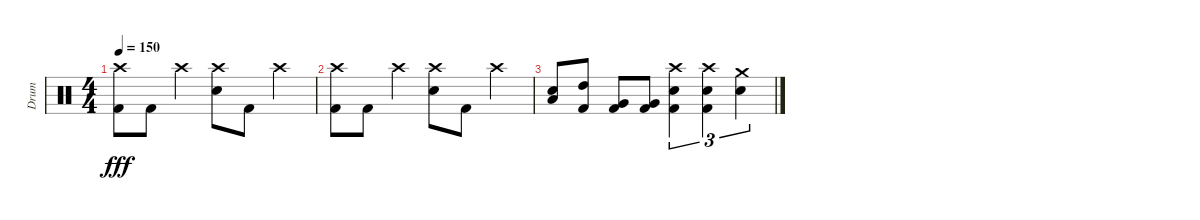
\track ("Drum" "Drum") {instrument percussion}
\staff {score}
\articulation defaults
\ts (4 4)
\tempo 150
\clef neutral
\ks c
("Crash high (hit)" "Kick (hit) 2").8{dy fff} "Kick (hit) 2".8 "Crash high (hit)".4 ("Crash high (hit)" "Electric Snare (hit)").8 "Kick (hit) 2".8 "Crash high (hit)".4 |
("Crash high (hit)" "Kick (hit) 2").8 "Kick (hit) 2".8 "Crash high (hit)".4 ("Crash high (hit)" "Electric Snare (hit)").8 "Kick (hit) 2".8 "Crash high (hit)".4 |
("Electric Snare (hit)" "Low Floor Tom (hit)").8 ("High Tom (hit)" "Kick (hit) 2").8 ("Very Low Tom (hit)" "Kick (hit) 2").8 ("Very Low Tom (hit)" "Kick (hit) 2").8 ("Crash high (hit)" "Electric Snare (hit)" "Kick (hit) 2").4{tu (3 2)} ("Crash high (hit)" "Electric Snare (hit)" "Kick (hit) 2").4{tu (3 2)} ("Crash medium (hit)" "Electric Snare (hit)").4{tu (3 2)}
